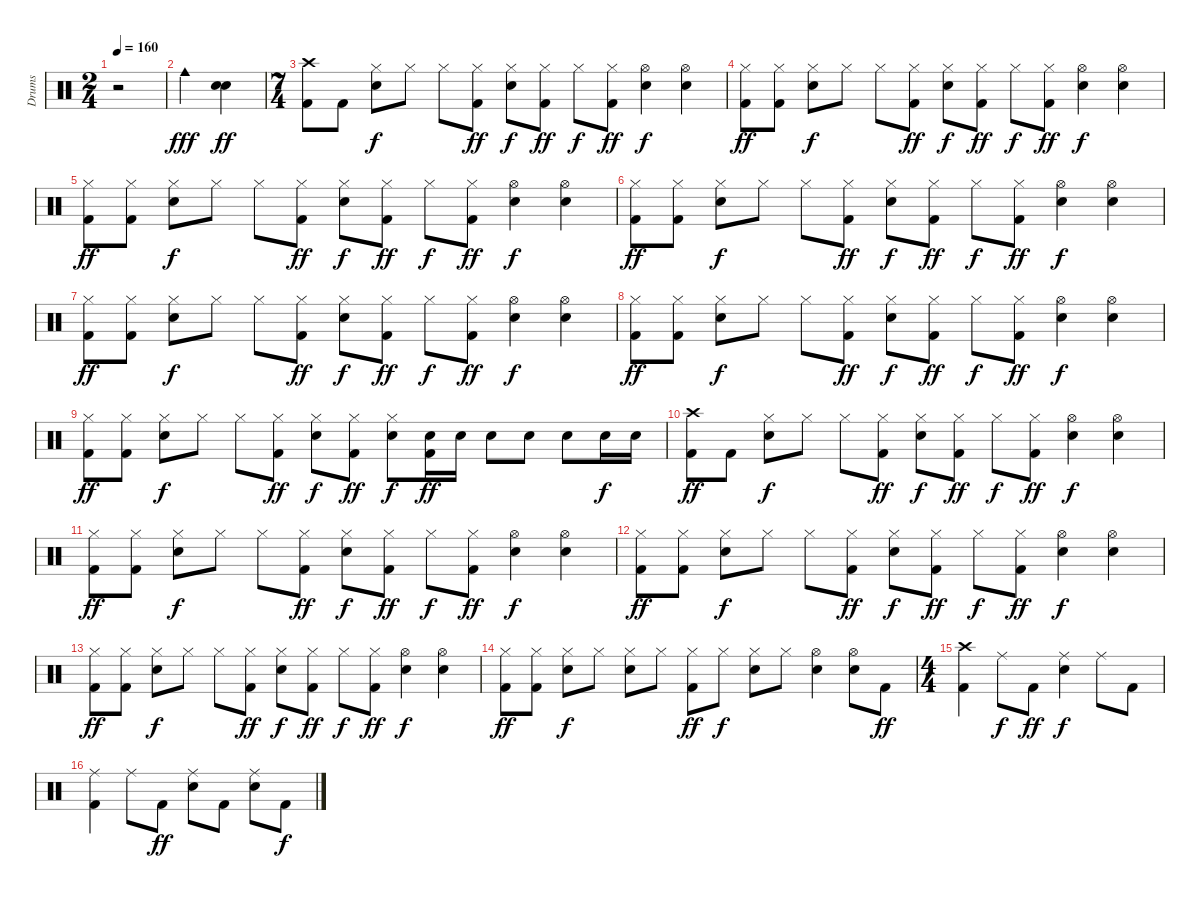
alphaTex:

\track ("Drums" "Drums") {instrument percussion}
\staff {score}
\articulation defaults
\ts (2 4)
\tempo 160
\clef neutral
\ks c
r.2{dy fff} |
"Cowbell medium (hit)".4 ("Snare (hit) 2" "Snare (hit) 2").4{dy ff} |
\ts (7 4)
("Crash high (hit)" "Kick (hit) 2").8 "Kick (hit) 2".8 ("Hi-Hat (closed)" "Snare (hit) 2").8{dy f} "Hi-Hat (closed)".8 "Hi-Hat (closed)".8 ("Hi-Hat (closed)" "Kick (hit) 2").8{dy ff} ("Hi-Hat (closed)" "Snare (hit) 2").8{dy f} ("Hi-Hat (closed)" "Kick (hit) 2").8{dy ff} "Hi-Hat (closed)".8{dy f} ("Hi-Hat (closed)" "Kick (hit) 2").8{dy ff} ("Hi-Hat (open)" "Snare (hit) 2").4{dy f} ("Hi-Hat (open)" "Snare (hit) 2").4 |
("Hi-Hat (closed)" "Kick (hit) 2").8{dy ff} ("Hi-Hat (closed)" "Kick (hit) 2").8 ("Hi-Hat (closed)" "Snare (hit) 2").8{dy f} "Hi-Hat (closed)".8 "Hi-Hat (closed)".8 ("Hi-Hat (closed)" "Kick (hit) 2").8{dy ff} ("Hi-Hat (closed)" "Snare (hit) 2").8{dy f} ("Hi-Hat (closed)" "Kick (hit) 2").8{dy ff} "Hi-Hat (closed)".8{dy f} ("Hi-Hat (closed)" "Kick (hit) 2").8{dy ff} ("Hi-Hat (open)" "Snare (hit) 2").4{dy f} ("Hi-Hat (open)" "Snare (hit) 2").4 |
("Hi-Hat (closed)" "Kick (hit) 2").8{dy ff} ("Hi-Hat (closed)" "Kick (hit) 2").8 ("Hi-Hat (closed)" "Snare (hit) 2").8{dy f} "Hi-Hat (closed)".8 "Hi-Hat (closed)".8 ("Hi-Hat (closed)" "Kick (hit) 2").8{dy ff} ("Hi-Hat (closed)" "Snare (hit) 2").8{dy f} ("Hi-Hat (closed)" "Kick (hit) 2").8{dy ff} "Hi-Hat (closed)".8{dy f} ("Hi-Hat (closed)" "Kick (hit) 2").8{dy ff} ("Hi-Hat (open)" "Snare (hit) 2").4{dy f} ("Hi-Hat (open)" "Snare (hit) 2").4 |
("Hi-Hat (closed)" "Kick (hit) 2").8{dy ff} ("Hi-Hat (closed)" "Kick (hit) 2").8 ("Hi-Hat (closed)" "Snare (hit) 2").8{dy f} "Hi-Hat (closed)".8 "Hi-Hat (closed)".8 ("Hi-Hat (closed)" "Kick (hit) 2").8{dy ff} ("Hi-Hat (closed)" "Snare (hit) 2").8{dy f} ("Hi-Hat (closed)" "Kick (hit) 2").8{dy ff} "Hi-Hat (closed)".8{dy f} ("Hi-Hat (closed)" "Kick (hit) 2").8{dy ff} ("Hi-Hat (open)" "Snare (hit) 2").4{dy f} ("Hi-Hat (open)" "Snare (hit) 2").4 |
("Hi-Hat (closed)" "Kick (hit) 2").8{dy ff} ("Hi-Hat (closed)" "Kick (hit) 2").8 ("Hi-Hat (closed)" "Snare (hit) 2").8{dy f} "Hi-Hat (closed)".8 "Hi-Hat (closed)".8 ("Hi-Hat (closed)" "Kick (hit) 2").8{dy ff} ("Hi-Hat (closed)" "Snare (hit) 2").8{dy f} ("Hi-Hat (closed)" "Kick (hit) 2").8{dy ff} "Hi-Hat (closed)".8{dy f} ("Hi-Hat (closed)" "Kick (hit) 2").8{dy ff} ("Hi-Hat (open)" "Snare (hit) 2").4{dy f} ("Hi-Hat (open)" "Snare (hit) 2").4 |
("Hi-Hat (closed)" "Kick (hit) 2").8{dy ff} ("Hi-Hat (closed)" "Kick (hit) 2").8 ("Hi-Hat (closed)" "Snare (hit) 2").8{dy f} "Hi-Hat (closed)".8 "Hi-Hat (closed)".8 ("Hi-Hat (closed)" "Kick (hit) 2").8{dy ff} ("Hi-Hat (closed)" "Snare (hit) 2").8{dy f} ("Hi-Hat (closed)" "Kick (hit) 2").8{dy ff} "Hi-Hat (closed)".8{dy f} ("Hi-Hat (closed)" "Kick (hit) 2").8{dy ff} ("Hi-Hat (open)" "Snare (hit) 2").4{dy f} ("Hi-Hat (open)" "Snare (hit) 2").4 |
("Hi-Hat (closed)" "Kick (hit) 2").8{dy ff} ("Hi-Hat (closed)" "Kick (hit) 2").8 ("Hi-Hat (closed)" "Snare (hit) 2").8{dy f} "Hi-Hat (closed)".8 "Hi-Hat (closed)".8 ("Hi-Hat (closed)" "Kick (hit) 2").8{dy ff} ("Hi-Hat (closed)" "Snare (hit) 2").8{dy f} ("Hi-Hat (closed)" "Kick (hit) 2").8{dy ff} ("Snare (hit) 2" "Hi-Hat (closed)").8{dy f} ("Snare (hit) 2" "Kick (hit) 2").16{dy ff} "Snare (hit) 2".16 "Snare (hit) 2".8 "Snare (hit) 2".8 "Snare (hit) 2".8 "Snare (hit) 2".16{dy f} "Snare (hit) 2".16 |
("Crash high (hit)" "Kick (hit) 2").8{dy ff} "Kick (hit) 2".8 ("Hi-Hat (closed)" "Snare (hit) 2").8{dy f} "Hi-Hat (closed)".8 "Hi-Hat (closed)".8 ("Hi-Hat (closed)" "Kick (hit) 2").8{dy ff} ("Hi-Hat (closed)" "Snare (hit) 2").8{dy f} ("Hi-Hat (closed)" "Kick (hit) 2").8{dy ff} "Hi-Hat (closed)".8{dy f} ("Hi-Hat (closed)" "Kick (hit) 2").8{dy ff} ("Hi-Hat (open)" "Snare (hit) 2").4{dy f} ("Hi-Hat (open)" "Snare (hit) 2").4 |
("Hi-Hat (closed)" "Kick (hit) 2").8{dy ff} ("Hi-Hat (closed)" "Kick (hit) 2").8 ("Hi-Hat (closed)" "Snare (hit) 2").8{dy f} "Hi-Hat (closed)".8 "Hi-Hat (closed)".8 ("Hi-Hat (closed)" "Kick (hit) 2").8{dy ff} ("Hi-Hat (closed)" "Snare (hit) 2").8{dy f} ("Hi-Hat (closed)" "Kick (hit) 2").8{dy ff} "Hi-Hat (closed)".8{dy f} ("Hi-Hat (closed)" "Kick (hit) 2").8{dy ff} ("Hi-Hat (open)" "Snare (hit) 2").4{dy f} ("Hi-Hat (open)" "Snare (hit) 2").4 |
("Hi-Hat (closed)" "Kick (hit) 2").8{dy ff} ("Hi-Hat (closed)" "Kick (hit) 2").8 ("Hi-Hat (closed)" "Snare (hit) 2").8{dy f} "Hi-Hat (closed)".8 "Hi-Hat (closed)".8 ("Hi-Hat (closed)" "Kick (hit) 2").8{dy ff} ("Hi-Hat (closed)" "Snare (hit) 2").8{dy f} ("Hi-Hat (closed)" "Kick (hit) 2").8{dy ff} "Hi-Hat (closed)".8{dy f} ("Hi-Hat (closed)" "Kick (hit) 2").8{dy ff} ("Hi-Hat (open)" "Snare (hit) 2").4{dy f} ("Hi-Hat (open)" "Snare (hit) 2").4 |
("Hi-Hat (closed)" "Kick (hit) 2").8{dy ff} ("Hi-Hat (closed)" "Kick (hit) 2").8 ("Hi-Hat (closed)" "Snare (hit) 2").8{dy f} "Hi-Hat (closed)".8 "Hi-Hat (closed)".8 ("Hi-Hat (closed)" "Kick (hit) 2").8{dy ff} ("Hi-Hat (closed)" "Snare (hit) 2").8{dy f} ("Hi-Hat (closed)" "Kick (hit) 2").8{dy ff} "Hi-Hat (closed)".8{dy f} ("Hi-Hat (closed)" "Kick (hit) 2").8{dy ff} ("Hi-Hat (open)" "Snare (hit) 2").4{dy f} ("Hi-Hat (open)" "Snare (hit) 2").4 |
("Hi-Hat (closed)" "Kick (hit) 2").8{dy ff} ("Hi-Hat (closed)" "Kick (hit) 2").8 ("Hi-Hat (closed)" "Snare (hit) 2").8{dy f} "Hi-Hat (closed)".8 ("Snare (hit) 2" "Hi-Hat (closed)").8 "Hi-Hat (closed)".8 ("Kick (hit) 2" "Hi-Hat (closed)").8{dy ff} "Hi-Hat (closed)".8{dy f} ("Snare (hit) 2" "Hi-Hat (closed)").8 "Hi-Hat (closed)".8 ("Hi-Hat (open)" "Snare (hit) 2").4 ("Hi-Hat (open)" "Snare (hit) 2").8 "Kick (hit) 2".8{dy ff} |
\ts (4 4)
("Crash high (hit)" "Kick (hit) 2").4 "Ride (middle)".8{dy f} "Kick (hit) 2".8{dy ff} ("Ride (middle)" "Snare (hit) 2").4{dy f} "Ride (middle)".8 "Kick (hit) 2".8 |
("Ride (middle)" "Kick (hit) 2").4 "Ride (middle)".8 "Kick (hit) 2".8{dy ff} ("Ride (middle)" "Snare (hit) 2").8 "Kick (hit) 2".8 ("Ride (middle)" "Snare (hit) 2").8 "Kick (hit) 2".8{dy f}
